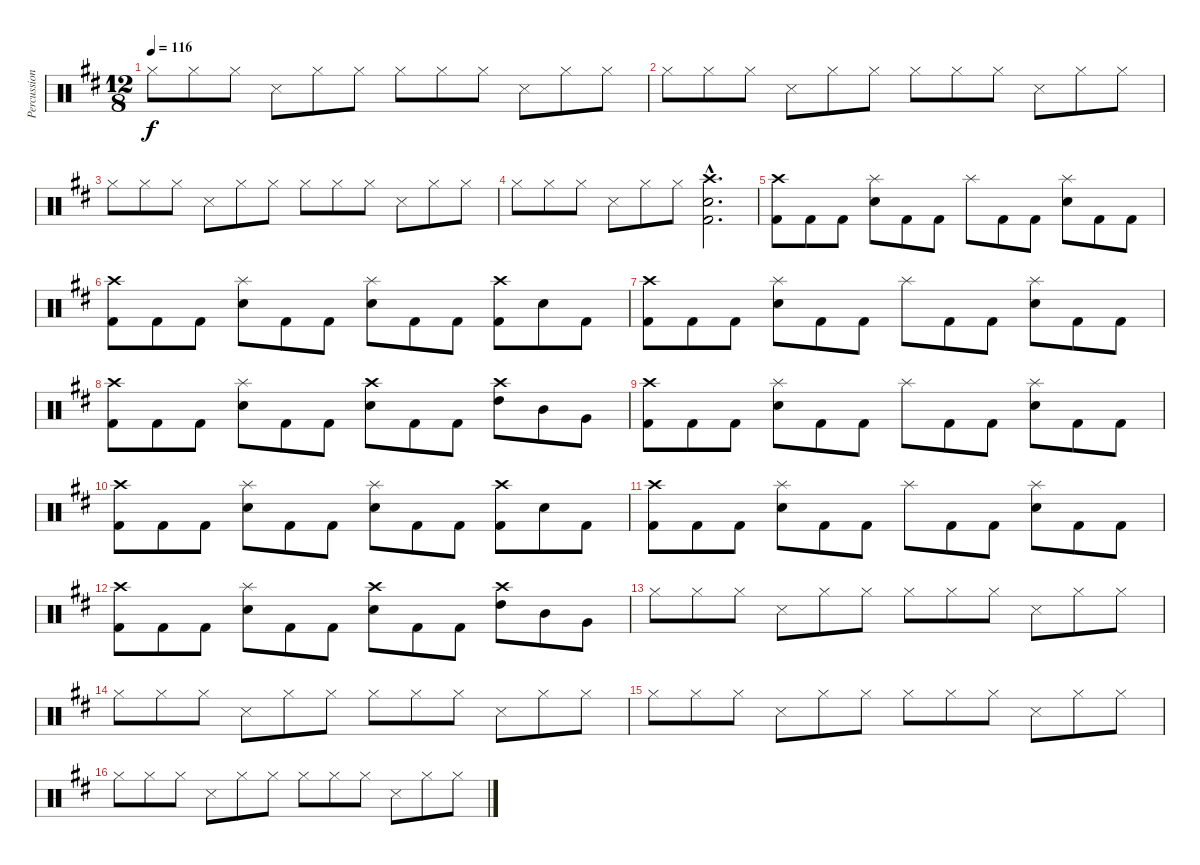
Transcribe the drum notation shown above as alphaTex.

\track ("Percussion" "Percussion") {instrument percussion}
\staff {score}
\articulation defaults
\ts (12 8)
\tempo 116
\clef neutral
\ks bminor "Hi-Hat (closed)".8{dy f} "Hi-Hat (closed)".8 "Hi-Hat (closed)".8 "Snare (side stick) 3".8 "Hi-Hat (closed)".8 "Hi-Hat (closed)".8 "Hi-Hat (closed)".8 "Hi-Hat (closed)".8 "Hi-Hat (closed)".8 "Snare (side stick) 3".8 "Hi-Hat (closed)".8 "Hi-Hat (closed)".8
|
"Hi-Hat (closed)".8 "Hi-Hat (closed)".8 "Hi-Hat (closed)".8 "Snare (side stick) 3".8 "Hi-Hat (closed)".8 "Hi-Hat (closed)".8 "Hi-Hat (closed)".8 "Hi-Hat (closed)".8 "Hi-Hat (closed)".8 "Snare (side stick) 3".8 "Hi-Hat (closed)".8 "Hi-Hat (closed)".8 |
"Hi-Hat (closed)".8 "Hi-Hat (closed)".8 "Hi-Hat (closed)".8 "Snare (side stick) 3".8 "Hi-Hat (closed)".8 "Hi-Hat (closed)".8 "Hi-Hat (closed)".8 "Hi-Hat (closed)".8 "Hi-Hat (closed)".8 "Snare (side stick) 3".8 "Hi-Hat (closed)".8 "Hi-Hat (closed)".8 |
"Hi-Hat (closed)".8 "Hi-Hat (closed)".8 "Hi-Hat (closed)".8 "Snare (side stick) 3".8 "Hi-Hat (closed)".8 "Hi-Hat (closed)".8 ("Crash high (hit)"{hac} "Snare (hit) 2"{hac} "Kick (hit) 2"{hac}).2{d} |
("Crash high (hit)" "Kick (hit) 2").8 "Kick (hit) 2".8 "Kick (hit) 2".8 ("Splash (hit)" "Snare (hit) 2").8 "Kick (hit) 2".8 "Kick (hit) 2".8 "Splash (hit)".8 "Kick (hit) 2".8 "Kick (hit) 2".8 ("Splash (hit)" "Snare (hit) 2").8 "Kick (hit) 2".8 "Kick (hit) 2".8 |
("Crash high (hit)" "Kick (hit) 2").8 "Kick (hit) 2".8 "Kick (hit) 2".8 ("Splash (hit)" "Snare (hit) 2").8 "Kick (hit) 2".8 "Kick (hit) 2".8 ("Splash (hit)" "Snare (hit) 2").8 "Kick (hit) 2".8 "Kick (hit) 2".8 ("Crash high (hit)" "Kick (hit) 2").8 "Snare (hit) 2".8 "Kick (hit) 2".8 |
("Crash high (hit)" "Kick (hit) 2").8 "Kick (hit) 2".8 "Kick (hit) 2".8 ("Splash (hit)" "Snare (hit) 2").8 "Kick (hit) 2".8 "Kick (hit) 2".8 "Splash (hit)".8 "Kick (hit) 2".8 "Kick (hit) 2".8 ("Splash (hit)" "Snare (hit) 2").8 "Kick (hit) 2".8 "Kick (hit) 2".8 |
("Crash high (hit)" "Kick (hit) 2").8 "Kick (hit) 2".8 "Kick (hit) 2".8 ("Splash (hit)" "Snare (hit) 2").8 "Kick (hit) 2".8 "Kick (hit) 2".8 ("Crash high (hit)" "Snare (hit) 2").8 "Kick (hit) 2".8 "Kick (hit) 2".8 ("Crash high (hit)" "High Tom (hit)").8 "Mid Tom (hit)".8 "Very Low Tom (hit)".8 |
("Crash high (hit)" "Kick (hit) 2").8 "Kick (hit) 2".8 "Kick (hit) 2".8 ("Splash (hit)" "Snare (hit) 2").8 "Kick (hit) 2".8 "Kick (hit) 2".8 "Splash (hit)".8 "Kick (hit) 2".8 "Kick (hit) 2".8 ("Splash (hit)" "Snare (hit) 2").8 "Kick (hit) 2".8 "Kick (hit) 2".8 |
("Crash high (hit)" "Kick (hit) 2").8 "Kick (hit) 2".8 "Kick (hit) 2".8 ("Splash (hit)" "Snare (hit) 2").8 "Kick (hit) 2".8 "Kick (hit) 2".8 ("Splash (hit)" "Snare (hit) 2").8 "Kick (hit) 2".8 "Kick (hit) 2".8 ("Crash high (hit)" "Kick (hit) 2").8 "Snare (hit) 2".8 "Kick (hit) 2".8 |
("Crash high (hit)" "Kick (hit) 2").8 "Kick (hit) 2".8 "Kick (hit) 2".8 ("Splash (hit)" "Snare (hit) 2").8 "Kick (hit) 2".8 "Kick (hit) 2".8 "Splash (hit)".8 "Kick (hit) 2".8 "Kick (hit) 2".8 ("Splash (hit)" "Snare (hit) 2").8 "Kick (hit) 2".8 "Kick (hit) 2".8 |
("Crash high (hit)" "Kick (hit) 2").8 "Kick (hit) 2".8 "Kick (hit) 2".8 ("Splash (hit)" "Snare (hit) 2").8 "Kick (hit) 2".8 "Kick (hit) 2".8 ("Crash high (hit)" "Snare (hit) 2").8 "Kick (hit) 2".8 "Kick (hit) 2".8 ("Crash high (hit)" "High Tom (hit)").8 "Mid Tom (hit)".8 "Very Low Tom (hit)".8 |
"Hi-Hat (closed)".8 "Hi-Hat (closed)".8 "Hi-Hat (closed)".8 "Snare (side stick) 3".8 "Hi-Hat (closed)".8 "Hi-Hat (closed)".8 "Hi-Hat (closed)".8 "Hi-Hat (closed)".8 "Hi-Hat (closed)".8 "Snare (side stick) 3".8 "Hi-Hat (closed)".8 "Hi-Hat (closed)".8 |
"Hi-Hat (closed)".8 "Hi-Hat (closed)".8 "Hi-Hat (closed)".8 "Snare (side stick) 3".8 "Hi-Hat (closed)".8 "Hi-Hat (closed)".8 "Hi-Hat (closed)".8 "Hi-Hat (closed)".8 "Hi-Hat (closed)".8 "Snare (side stick) 3".8 "Hi-Hat (closed)".8 "Hi-Hat (closed)".8 |
"Hi-Hat (closed)".8 "Hi-Hat (closed)".8 "Hi-Hat (closed)".8 "Snare (side stick) 3".8 "Hi-Hat (closed)".8 "Hi-Hat (closed)".8 "Hi-Hat (closed)".8 "Hi-Hat (closed)".8 "Hi-Hat (closed)".8 "Snare (side stick) 3".8 "Hi-Hat (closed)".8 "Hi-Hat (closed)".8 |
"Hi-Hat (closed)".8 "Hi-Hat (closed)".8 "Hi-Hat (closed)".8 "Snare (side stick) 3".8 "Hi-Hat (closed)".8 "Hi-Hat (closed)".8 "Hi-Hat (closed)".8 "Hi-Hat (closed)".8 "Hi-Hat (closed)".8 "Snare (side stick) 3".8 "Hi-Hat (closed)".8 "Hi-Hat (closed)".8
